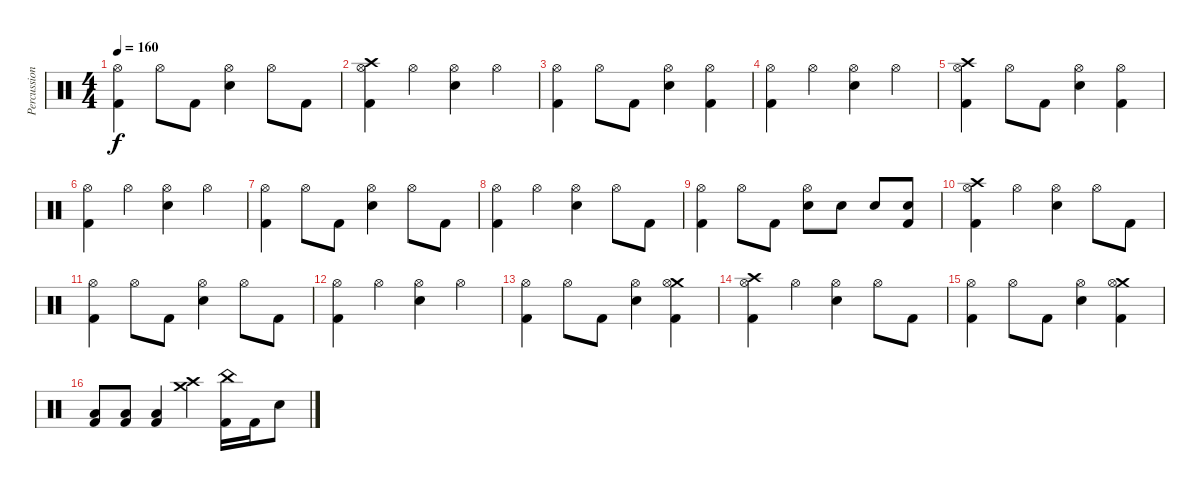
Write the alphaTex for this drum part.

\track ("Percussion" "Percussion") {instrument percussion}
\staff {score}
\articulation defaults
\ts (4 4)
\tempo 160
\clef neutral
\ks c
("Hi-Hat (open)" "Kick (hit) 2").4{dy f} "Hi-Hat (open)".8 "Kick (hit) 2".8 ("Hi-Hat (open)" "Electric Snare (hit)").4 "Hi-Hat (open)".8 "Kick (hit) 2".8 |
("Crash high (hit)" "Hi-Hat (open)" "Kick (hit) 2").4 "Hi-Hat (open)".4 ("Hi-Hat (open)" "Electric Snare (hit)").4 "Hi-Hat (open)".4 |
("Hi-Hat (open)" "Kick (hit) 2").4 "Hi-Hat (open)".8 "Kick (hit) 2".8 ("Hi-Hat (open)" "Electric Snare (hit)").4 ("Hi-Hat (open)" "Kick (hit) 2").4 |
("Hi-Hat (open)" "Kick (hit) 2").4 "Hi-Hat (open)".4 ("Hi-Hat (open)" "Electric Snare (hit)").4 "Hi-Hat (open)".4 |
("Crash high (hit)" "Hi-Hat (open)" "Kick (hit) 2").4 "Hi-Hat (open)".8 "Kick (hit) 2".8 ("Hi-Hat (open)" "Electric Snare (hit)").4 ("Hi-Hat (open)" "Kick (hit) 2").4 |
("Hi-Hat (open)" "Kick (hit) 2").4 "Hi-Hat (open)".4 ("Hi-Hat (open)" "Electric Snare (hit)").4 "Hi-Hat (open)".4 |
("Hi-Hat (open)" "Kick (hit) 2").4 "Hi-Hat (open)".8 "Kick (hit) 2".8 ("Hi-Hat (open)" "Electric Snare (hit)").4 "Hi-Hat (open)".8 "Kick (hit) 2".8 |
("Hi-Hat (open)" "Kick (hit) 2").4 "Hi-Hat (open)".4 ("Hi-Hat (open)" "Electric Snare (hit)").4 "Hi-Hat (open)".8 "Kick (hit) 2".8 |
("Hi-Hat (open)" "Kick (hit) 2").4 "Hi-Hat (open)".8 "Kick (hit) 2".8 ("Hi-Hat (open)" "Electric Snare (hit)").8 "Electric Snare (hit)".8 "Electric Snare (hit)".8 ("Electric Snare (hit)" "Kick (hit) 2").8 |
("Crash high (hit)" "Hi-Hat (open)" "Kick (hit) 2").4 "Hi-Hat (open)".4 ("Hi-Hat (open)" "Electric Snare (hit)").4 "Hi-Hat (open)".8 "Kick (hit) 2".8 |
("Hi-Hat (open)" "Kick (hit) 2").4 "Hi-Hat (open)".8 "Kick (hit) 2".8 ("Hi-Hat (open)" "Electric Snare (hit)").4 "Hi-Hat (open)".8 "Kick (hit) 2".8 |
("Hi-Hat (open)" "Kick (hit) 2").4 "Hi-Hat (open)".4 ("Hi-Hat (open)" "Electric Snare (hit)").4 "Hi-Hat (open)".4 |
("Hi-Hat (open)" "Kick (hit) 2").4 "Hi-Hat (open)".8 "Kick (hit) 2".8 ("Hi-Hat (open)" "Electric Snare (hit)").4 ("Crash medium (hit)" "Hi-Hat (open)" "Kick (hit) 2").4 |
("Crash high (hit)" "Hi-Hat (open)" "Kick (hit) 2").4 "Hi-Hat (open)".4 ("Hi-Hat (open)" "Electric Snare (hit)").4 "Hi-Hat (open)".8 "Kick (hit) 2".8 |
("Hi-Hat (open)" "Kick (hit) 2").4 "Hi-Hat (open)".8 "Kick (hit) 2".8 ("Hi-Hat (open)" "Electric Snare (hit)").4 ("Crash medium (hit)" "Hi-Hat (open)" "Kick (hit) 2").4 |
("Low Tom (hit)" "Kick (hit) 2").8 ("Low Tom (hit)" "Kick (hit) 2").8 ("Low Tom (hit)" "Kick (hit) 2").4 ("Crash medium (hit)" "Crash high (hit)").4 ("China (hit)" "Kick (hit) 2").16 "Kick (hit) 2".16 "Electric Snare (hit)".8
